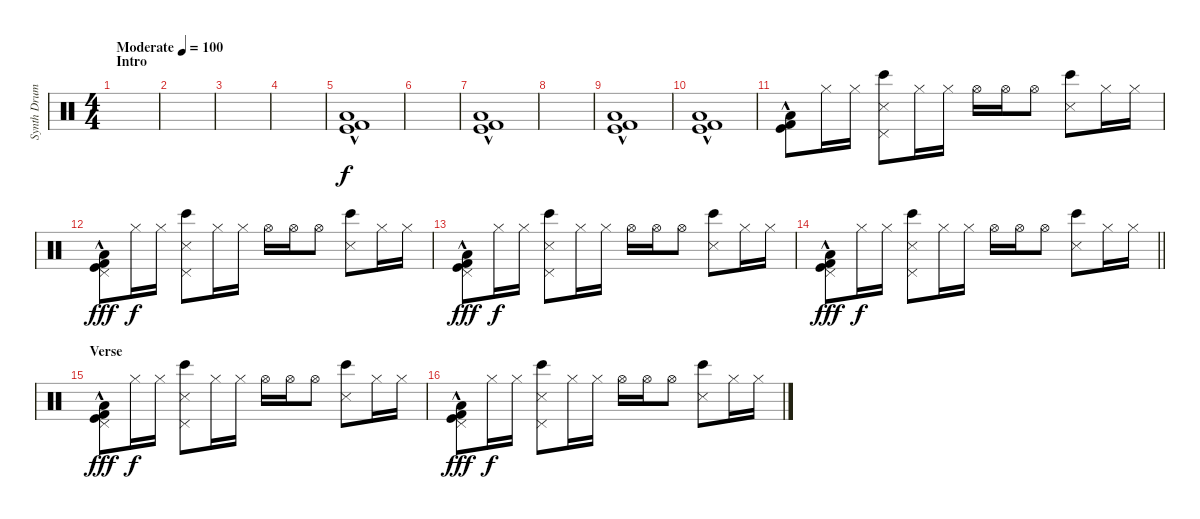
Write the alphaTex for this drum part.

\track ("Synth Drums" "Synth Drum") {instrument percussion}
\staff {score}
\articulation defaults
\ts (4 4)
\section ("" "Intro")
\tempo (100 "Moderate")
\clef neutral
\ks c
|
|
|
|
("Low Floor Tom (hit)"{hac} "Kick (hit) 2"{hac} "Kick (hit)"{hac}).1 |
|
("Low Floor Tom (hit)"{hac} "Kick (hit) 2"{hac} "Kick (hit)"{hac}).1 |
|
("Low Floor Tom (hit)"{hac} "Kick (hit) 2"{hac} "Kick (hit)"{hac}).1 |
("Low Floor Tom (hit)"{hac} "Kick (hit) 2"{hac} "Kick (hit)"{hac}).1 |
("Low Floor Tom (hit)"{hac} "Kick (hit) 2"{hac} "Kick (hit)"{hac}).8 "Hi-Hat (closed)".16{dy f} "Hi-Hat (closed)".16 ("Pedal Hi-Hat (hit)" "Bongo High (hit)" "Metronome (hit)").8 "Hi-Hat (closed)".16 "Hi-Hat (closed)".16 "Hi-Hat (open)".16 "Hi-Hat (open)".16 "Hi-Hat (open)".8 ("Bongo High (hit)" "Metronome (hit)").8 "Hi-Hat (closed)".16 "Hi-Hat (closed)".16 |
("Pedal Hi-Hat (hit)" "Low Floor Tom (hit)"{hac} "Kick (hit) 2"{hac} "Kick (hit)"{hac}).8{dy fff} "Hi-Hat (closed)".16{dy f} "Hi-Hat (closed)".16 ("Pedal Hi-Hat (hit)" "Bongo High (hit)" "Metronome (hit)").8 "Hi-Hat (closed)".16 "Hi-Hat (closed)".16 "Hi-Hat (open)".16 "Hi-Hat (open)".16 "Hi-Hat (open)".8 ("Bongo High (hit)" "Metronome (hit)").8 "Hi-Hat (closed)".16 "Hi-Hat (closed)".16 |
("Pedal Hi-Hat (hit)" "Low Floor Tom (hit)"{hac} "Kick (hit) 2"{hac} "Kick (hit)"{hac}).8{dy fff} "Hi-Hat (closed)".16{dy f} "Hi-Hat (closed)".16 ("Pedal Hi-Hat (hit)" "Bongo High (hit)" "Metronome (hit)").8 "Hi-Hat (closed)".16 "Hi-Hat (closed)".16 "Hi-Hat (open)".16 "Hi-Hat (open)".16 "Hi-Hat (open)".8 ("Bongo High (hit)" "Metronome (hit)").8 "Hi-Hat (closed)".16 "Hi-Hat (closed)".16 |
\barLineRight lightlight
("Pedal Hi-Hat (hit)" "Low Floor Tom (hit)"{hac} "Kick (hit) 2"{hac} "Kick (hit)"{hac}).8{dy fff} "Hi-Hat (closed)".16{dy f} "Hi-Hat (closed)".16 ("Pedal Hi-Hat (hit)" "Bongo High (hit)" "Metronome (hit)").8 "Hi-Hat (closed)".16 "Hi-Hat (closed)".16 "Hi-Hat (open)".16 "Hi-Hat (open)".16 "Hi-Hat (open)".8 ("Bongo High (hit)" "Metronome (hit)").8 "Hi-Hat (closed)".16 "Hi-Hat (closed)".16 |
\section ("" "Verse")
("Pedal Hi-Hat (hit)" "Low Floor Tom (hit)"{hac} "Kick (hit) 2"{hac} "Kick (hit)"{hac}).8{dy fff} "Hi-Hat (closed)".16{dy f} "Hi-Hat (closed)".16 ("Pedal Hi-Hat (hit)" "Bongo High (hit)" "Metronome (hit)").8 "Hi-Hat (closed)".16 "Hi-Hat (closed)".16 "Hi-Hat (open)".16 "Hi-Hat (open)".16 "Hi-Hat (open)".8 ("Bongo High (hit)" "Metronome (hit)").8 "Hi-Hat (closed)".16 "Hi-Hat (closed)".16 |
("Pedal Hi-Hat (hit)" "Low Floor Tom (hit)"{hac} "Kick (hit) 2"{hac} "Kick (hit)"{hac}).8{dy fff} "Hi-Hat (closed)".16{dy f} "Hi-Hat (closed)".16 ("Pedal Hi-Hat (hit)" "Bongo High (hit)" "Metronome (hit)").8 "Hi-Hat (closed)".16 "Hi-Hat (closed)".16 "Hi-Hat (open)".16 "Hi-Hat (open)".16 "Hi-Hat (open)".8 ("Bongo High (hit)" "Metronome (hit)").8 "Hi-Hat (closed)".16 "Hi-Hat (closed)".16
